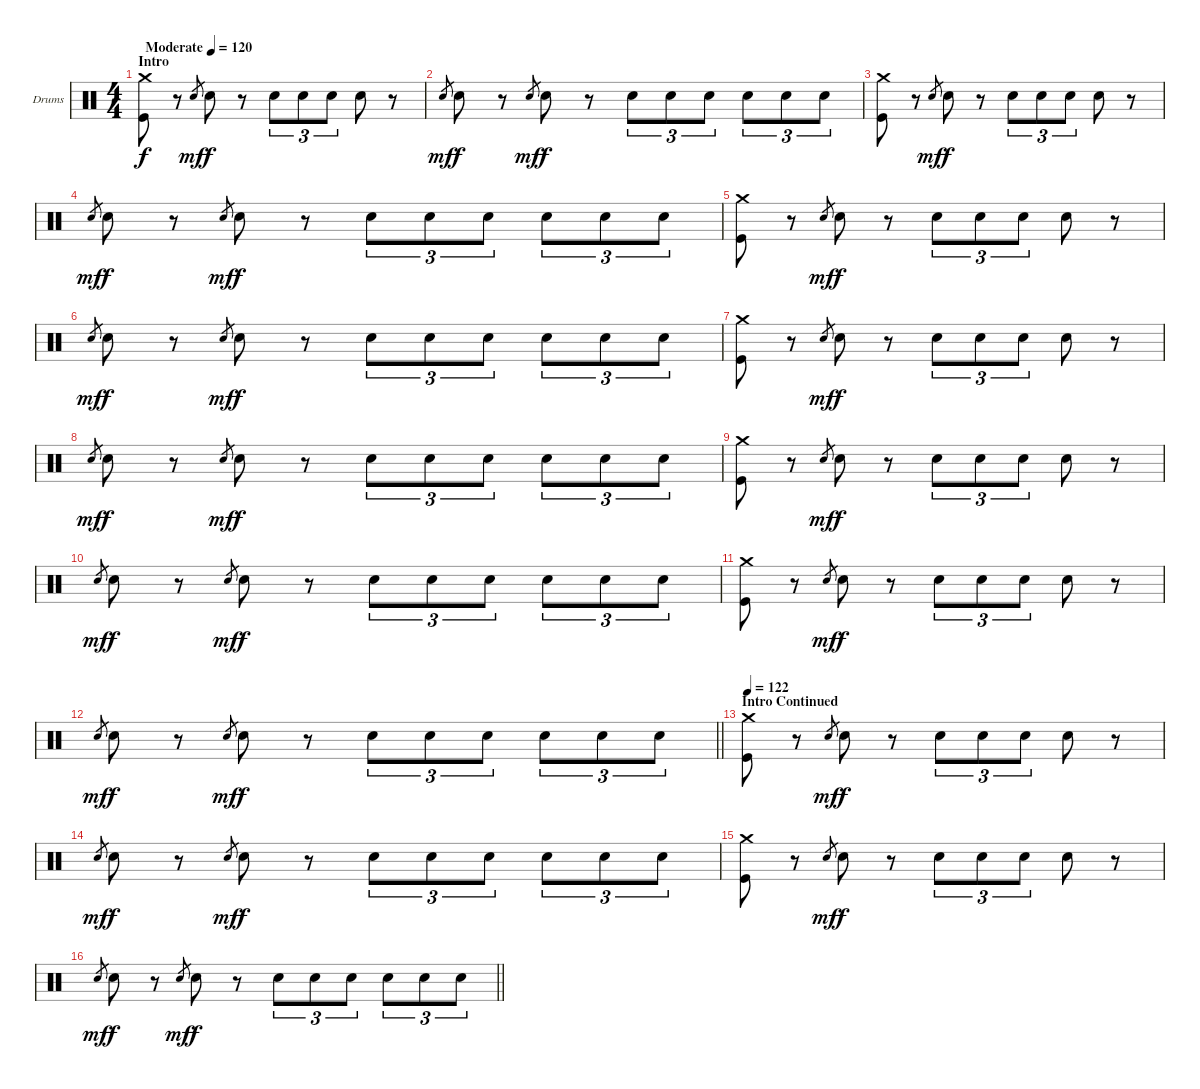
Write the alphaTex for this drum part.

\bracketExtendMode groupsimilarinstruments
\firstSystemTrackNameOrientation horizontal
\otherSystemsTrackNameOrientation horizontal
\track ("Drumkit" "Drums") {instrument percussion}
\staff {score}
\articulation defaults
\ts (4 4)
\beaming (8 2 2 2 2)
\section ("" "Intro")
\tempo (120 "Moderate")
\clef neutral
\ks c
("Crash medium (hit)" "Kick (hit)").8{dy f} r.8 "Snare (hit) 2".8{gr dy mf} "Snare (hit) 2".8{dy f} r.8 "Snare (hit) 2".8{tu (3 2)} "Snare (hit) 2".8{tu (3 2)} "Snare (hit) 2".8{tu (3 2)} "Snare (hit) 2".8 r.8 |
"Snare (hit) 2".8{gr dy mf} "Snare (hit) 2".8{dy f} r.8 "Snare (hit) 2".8{gr dy mf} "Snare (hit) 2".8{dy f} r.8 "Snare (hit) 2".8{tu (3 2)} "Snare (hit) 2".8{tu (3 2)} "Snare (hit) 2".8{tu (3 2)} "Snare (hit) 2".8{tu (3 2)} "Snare (hit) 2".8{tu (3 2)} "Snare (hit) 2".8{tu (3 2)} |
("Crash medium (hit)" "Kick (hit)").8 r.8 "Snare (hit) 2".8{gr dy mf} "Snare (hit) 2".8{dy f} r.8 "Snare (hit) 2".8{tu (3 2)} "Snare (hit) 2".8{tu (3 2)} "Snare (hit) 2".8{tu (3 2)} "Snare (hit) 2".8 r.8 |
"Snare (hit) 2".8{gr dy mf} "Snare (hit) 2".8{dy f} r.8 "Snare (hit) 2".8{gr dy mf} "Snare (hit) 2".8{dy f} r.8 "Snare (hit) 2".8{tu (3 2)} "Snare (hit) 2".8{tu (3 2)} "Snare (hit) 2".8{tu (3 2)} "Snare (hit) 2".8{tu (3 2)} "Snare (hit) 2".8{tu (3 2)} "Snare (hit) 2".8{tu (3 2)} |
("Crash medium (hit)" "Kick (hit)").8 r.8 "Snare (hit) 2".8{gr dy mf} "Snare (hit) 2".8{dy f} r.8 "Snare (hit) 2".8{tu (3 2)} "Snare (hit) 2".8{tu (3 2)} "Snare (hit) 2".8{tu (3 2)} "Snare (hit) 2".8 r.8 |
"Snare (hit) 2".8{gr dy mf} "Snare (hit) 2".8{dy f} r.8 "Snare (hit) 2".8{gr dy mf} "Snare (hit) 2".8{dy f} r.8 "Snare (hit) 2".8{tu (3 2)} "Snare (hit) 2".8{tu (3 2)} "Snare (hit) 2".8{tu (3 2)} "Snare (hit) 2".8{tu (3 2)} "Snare (hit) 2".8{tu (3 2)} "Snare (hit) 2".8{tu (3 2)} |
("Crash medium (hit)" "Kick (hit)").8 r.8 "Snare (hit) 2".8{gr dy mf} "Snare (hit) 2".8{dy f} r.8 "Snare (hit) 2".8{tu (3 2)} "Snare (hit) 2".8{tu (3 2)} "Snare (hit) 2".8{tu (3 2)} "Snare (hit) 2".8 r.8 |
"Snare (hit) 2".8{gr dy mf} "Snare (hit) 2".8{dy f} r.8 "Snare (hit) 2".8{gr dy mf} "Snare (hit) 2".8{dy f} r.8 "Snare (hit) 2".8{tu (3 2)} "Snare (hit) 2".8{tu (3 2)} "Snare (hit) 2".8{tu (3 2)} "Snare (hit) 2".8{tu (3 2)} "Snare (hit) 2".8{tu (3 2)} "Snare (hit) 2".8{tu (3 2)} |
("Crash medium (hit)" "Kick (hit)").8 r.8 "Snare (hit) 2".8{gr dy mf} "Snare (hit) 2".8{dy f} r.8 "Snare (hit) 2".8{tu (3 2)} "Snare (hit) 2".8{tu (3 2)} "Snare (hit) 2".8{tu (3 2)} "Snare (hit) 2".8 r.8 |
"Snare (hit) 2".8{gr dy mf} "Snare (hit) 2".8{dy f} r.8 "Snare (hit) 2".8{gr dy mf} "Snare (hit) 2".8{dy f} r.8 "Snare (hit) 2".8{tu (3 2)} "Snare (hit) 2".8{tu (3 2)} "Snare (hit) 2".8{tu (3 2)} "Snare (hit) 2".8{tu (3 2)} "Snare (hit) 2".8{tu (3 2)} "Snare (hit) 2".8{tu (3 2)} |
("Crash medium (hit)" "Kick (hit)").8 r.8 "Snare (hit) 2".8{gr dy mf} "Snare (hit) 2".8{dy f} r.8 "Snare (hit) 2".8{tu (3 2)} "Snare (hit) 2".8{tu (3 2)} "Snare (hit) 2".8{tu (3 2)} "Snare (hit) 2".8 r.8 |
\barLineRight lightlight "Snare (hit) 2".8{gr dy mf} "Snare (hit) 2".8{dy f}
r.8 "Snare (hit) 2".8{gr dy mf} "Snare (hit) 2".8{dy f} r.8 "Snare (hit) 2".8{tu (3 2)} "Snare (hit) 2".8{tu (3 2)} "Snare (hit) 2".8{tu (3 2)} "Snare (hit) 2".8{tu (3 2)} "Snare (hit) 2".8{tu (3 2)} "Snare (hit) 2".8{tu (3 2)} |
\section ("" "Intro Continued")
\tempo 122
("Crash medium (hit)" "Kick (hit)").8 r.8 "Snare (hit) 2".8{gr dy mf} "Snare (hit) 2".8{dy f} r.8 "Snare (hit) 2".8{tu (3 2)} "Snare (hit) 2".8{tu (3 2)} "Snare (hit) 2".8{tu (3 2)} "Snare (hit) 2".8 r.8 |
"Snare (hit) 2".8{gr dy mf} "Snare (hit) 2".8{dy f} r.8 "Snare (hit) 2".8{gr dy mf} "Snare (hit) 2".8{dy f} r.8 "Snare (hit) 2".8{tu (3 2)} "Snare (hit) 2".8{tu (3 2)} "Snare (hit) 2".8{tu (3 2)} "Snare (hit) 2".8{tu (3 2)} "Snare (hit) 2".8{tu (3 2)} "Snare (hit) 2".8{tu (3 2)} |
("Crash medium (hit)" "Kick (hit)").8 r.8 "Snare (hit) 2".8{gr dy mf} "Snare (hit) 2".8{dy f} r.8 "Snare (hit) 2".8{tu (3 2)} "Snare (hit) 2".8{tu (3 2)} "Snare (hit) 2".8{tu (3 2)} "Snare (hit) 2".8 r.8 |
\barLineRight lightlight "Snare (hit) 2".8{gr dy mf} "Snare (hit) 2".8{dy f}
r.8 "Snare (hit) 2".8{gr dy mf} "Snare (hit) 2".8{dy f} r.8 "Snare (hit) 2".8{tu (3 2)} "Snare (hit) 2".8{tu (3 2)} "Snare (hit) 2".8{tu (3 2)} "Snare (hit) 2".8{tu (3 2)} "Snare (hit) 2".8{tu (3 2)} "Snare (hit) 2".8{tu (3 2)}
